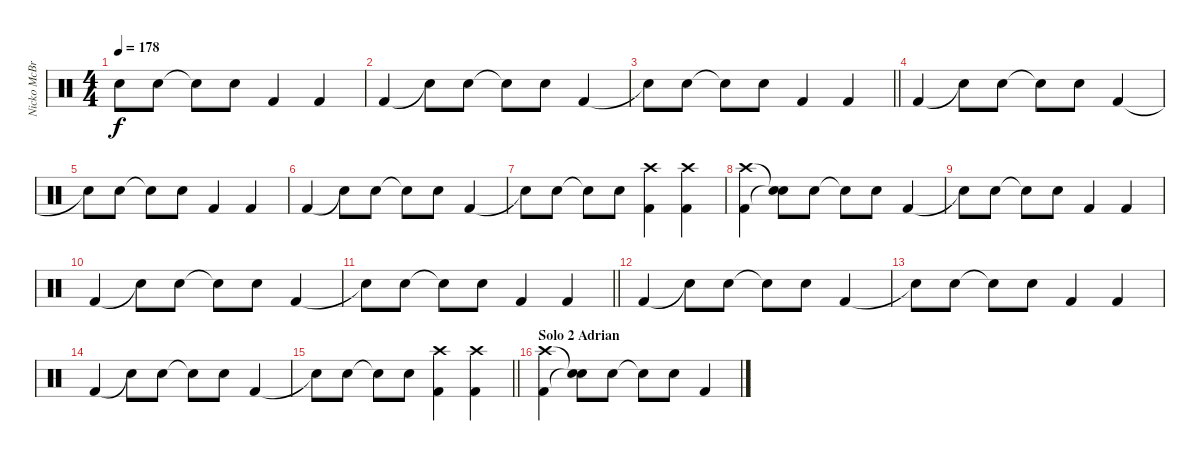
\track ("Nicko McBrian" "Nicko McBr") {instrument percussion}
\staff {score}
\articulation defaults
\ts (4 4)
\tempo 178
\clef neutral
\ks c "Snare (hit)"{t}.8{dy f} "Electric Snare (hit)".8 "Snare (hit)"{t}.8 "Electric Snare (hit)".8 "Kick (hit) 2".4 "Kick (hit) 2".4
|
"Kick (hit) 2".4 "Snare (hit)"{t}.8 "Electric Snare (hit)".8 "Snare (hit)"{t}.8 "Electric Snare (hit)".8 "Kick (hit) 2".4 |
\barLineRight lightlight "Snare (hit)"{t}.8 "Electric Snare (hit)".8 "Snare (hit)"{t}.8 "Electric Snare (hit)".8 "Kick (hit) 2".4 "Kick (hit) 2".4
|
"Kick (hit) 2".4 "Snare (hit)"{t}.8 "Electric Snare (hit)".8 "Snare (hit)"{t}.8 "Electric Snare (hit)".8 "Kick (hit) 2".4 |
"Snare (hit)"{t}.8 "Electric Snare (hit)".8 "Snare (hit)"{t}.8 "Electric Snare (hit)".8 "Kick (hit) 2".4 "Kick (hit) 2".4 |
"Kick (hit) 2".4 "Snare (hit)"{t}.8 "Electric Snare (hit)".8 "Snare (hit)"{t}.8 "Electric Snare (hit)".8 "Kick (hit) 2".4 |
"Snare (hit)"{t}.8 "Electric Snare (hit)".8 "Snare (hit)"{t}.8 "Electric Snare (hit)".8 ("Crash high (hit)" "Kick (hit) 2").4 ("Crash high (hit)" "Kick (hit) 2").4 |
("Crash high (hit)" "Kick (hit) 2").4 ("Snare (hit)"{t} "Snare (hit)"{t}).8 "Electric Snare (hit)".8 "Snare (hit)"{t}.8 "Electric Snare (hit)".8 "Kick (hit) 2".4 |
"Snare (hit)"{t}.8 "Electric Snare (hit)".8 "Snare (hit)"{t}.8 "Electric Snare (hit)".8 "Kick (hit) 2".4 "Kick (hit) 2".4 |
"Kick (hit) 2".4 "Snare (hit)"{t}.8 "Electric Snare (hit)".8 "Snare (hit)"{t}.8 "Electric Snare (hit)".8 "Kick (hit) 2".4 |
\barLineRight lightlight "Snare (hit)"{t}.8 "Electric Snare (hit)".8 "Snare (hit)"{t}.8 "Electric Snare (hit)".8 "Kick (hit) 2".4 "Kick (hit) 2".4
|
"Kick (hit) 2".4 "Snare (hit)"{t}.8 "Electric Snare (hit)".8 "Snare (hit)"{t}.8 "Electric Snare (hit)".8 "Kick (hit) 2".4 |
"Snare (hit)"{t}.8 "Electric Snare (hit)".8 "Snare (hit)"{t}.8 "Electric Snare (hit)".8 "Kick (hit) 2".4 "Kick (hit) 2".4 |
"Kick (hit) 2".4 "Snare (hit)"{t}.8 "Electric Snare (hit)".8 "Snare (hit)"{t}.8 "Electric Snare (hit)".8 "Kick (hit) 2".4 |
\barLineRight lightlight "Snare (hit)"{t}.8 "Electric Snare (hit)".8 "Snare (hit)"{t}.8 "Electric Snare (hit)".8
("Crash high (hit)" "Kick (hit) 2").4 ("Crash high (hit)" "Kick (hit) 2").4 |
\section ("" "Solo 2 Adrian")
("Crash high (hit)" "Kick (hit) 2").4 ("Snare (hit)"{t} "Snare (hit)"{t}).8 "Electric Snare (hit)".8 "Snare (hit)"{t}.8 "Electric Snare (hit)".8 "Kick (hit) 2".4
